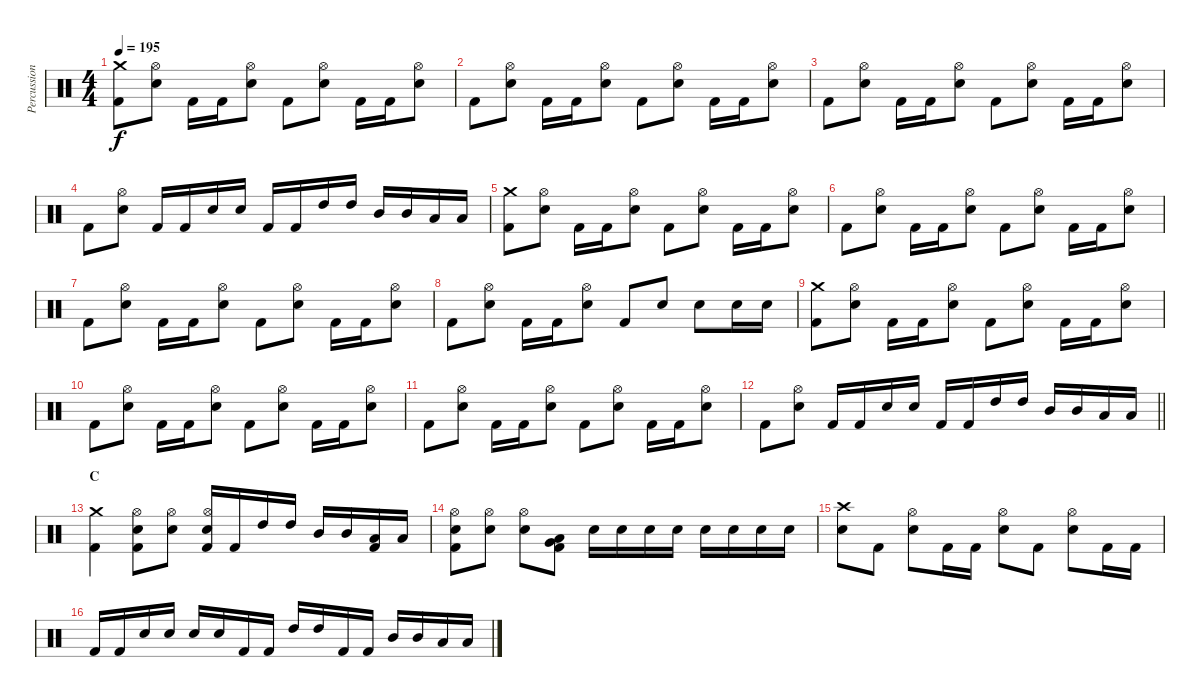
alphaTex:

\track ("Percussion" "Percussion") {instrument percussion}
\staff {score}
\articulation defaults
\ts (4 4)
\tempo 195
\clef neutral
\ks c
("Crash medium (hit)" "Kick (hit) 2").8{dy f} ("Hi-Hat (open)" "Electric Snare (hit)").8 "Kick (hit) 2".16 "Kick (hit) 2".16 ("Hi-Hat (open)" "Electric Snare (hit)").8 "Kick (hit) 2".8 ("Hi-Hat (open)" "Electric Snare (hit)").8 "Kick (hit) 2".16 "Kick (hit) 2".16 ("Hi-Hat (open)" "Electric Snare (hit)").8 |
"Kick (hit) 2".8 ("Hi-Hat (open)" "Electric Snare (hit)").8 "Kick (hit) 2".16 "Kick (hit) 2".16 ("Hi-Hat (open)" "Electric Snare (hit)").8 "Kick (hit) 2".8 ("Hi-Hat (open)" "Electric Snare (hit)").8 "Kick (hit) 2".16 "Kick (hit) 2".16 ("Hi-Hat (open)" "Electric Snare (hit)").8 |
"Kick (hit) 2".8 ("Hi-Hat (open)" "Electric Snare (hit)").8 "Kick (hit) 2".16 "Kick (hit) 2".16 ("Hi-Hat (open)" "Electric Snare (hit)").8 "Kick (hit) 2".8 ("Hi-Hat (open)" "Electric Snare (hit)").8 "Kick (hit) 2".16 "Kick (hit) 2".16 ("Hi-Hat (open)" "Electric Snare (hit)").8 |
"Kick (hit) 2".8 ("Hi-Hat (open)" "Electric Snare (hit)").8 "Kick (hit) 2".16 "Kick (hit) 2".16 "Electric Snare (hit)".16 "Electric Snare (hit)".16 "Kick (hit) 2".16 "Kick (hit) 2".16 "High Tom (hit)".16 "High Tom (hit)".16 "Mid Tom (hit)".16 "Mid Tom (hit)".16 "Low Tom (hit)".16 "Low Tom (hit)".16 |
("Crash medium (hit)" "Kick (hit) 2").8 ("Hi-Hat (open)" "Electric Snare (hit)").8 "Kick (hit) 2".16 "Kick (hit) 2".16 ("Hi-Hat (open)" "Electric Snare (hit)").8 "Kick (hit) 2".8 ("Hi-Hat (open)" "Electric Snare (hit)").8 "Kick (hit) 2".16 "Kick (hit) 2".16 ("Hi-Hat (open)" "Electric Snare (hit)").8 |
"Kick (hit) 2".8 ("Hi-Hat (open)" "Electric Snare (hit)").8 "Kick (hit) 2".16 "Kick (hit) 2".16 ("Hi-Hat (open)" "Electric Snare (hit)").8 "Kick (hit) 2".8 ("Hi-Hat (open)" "Electric Snare (hit)").8 "Kick (hit) 2".16 "Kick (hit) 2".16 ("Hi-Hat (open)" "Electric Snare (hit)").8 |
"Kick (hit) 2".8 ("Hi-Hat (open)" "Electric Snare (hit)").8 "Kick (hit) 2".16 "Kick (hit) 2".16 ("Hi-Hat (open)" "Electric Snare (hit)").8 "Kick (hit) 2".8 ("Hi-Hat (open)" "Electric Snare (hit)").8 "Kick (hit) 2".16 "Kick (hit) 2".16 ("Hi-Hat (open)" "Electric Snare (hit)").8 |
"Kick (hit) 2".8 ("Hi-Hat (open)" "Electric Snare (hit)").8 "Kick (hit) 2".16 "Kick (hit) 2".16 ("Hi-Hat (open)" "Electric Snare (hit)").8 "Kick (hit) 2".8 "Electric Snare (hit)".8 "Electric Snare (hit)".8 "Electric Snare (hit)".16 "Electric Snare (hit)".16 |
("Crash medium (hit)" "Kick (hit) 2").8 ("Hi-Hat (open)" "Electric Snare (hit)").8 "Kick (hit) 2".16 "Kick (hit) 2".16 ("Hi-Hat (open)" "Electric Snare (hit)").8 "Kick (hit) 2".8 ("Hi-Hat (open)" "Electric Snare (hit)").8 "Kick (hit) 2".16 "Kick (hit) 2".16 ("Hi-Hat (open)" "Electric Snare (hit)").8 |
"Kick (hit) 2".8 ("Hi-Hat (open)" "Electric Snare (hit)").8 "Kick (hit) 2".16 "Kick (hit) 2".16 ("Hi-Hat (open)" "Electric Snare (hit)").8 "Kick (hit) 2".8 ("Hi-Hat (open)" "Electric Snare (hit)").8 "Kick (hit) 2".16 "Kick (hit) 2".16 ("Hi-Hat (open)" "Electric Snare (hit)").8 |
"Kick (hit) 2".8 ("Hi-Hat (open)" "Electric Snare (hit)").8 "Kick (hit) 2".16 "Kick (hit) 2".16 ("Hi-Hat (open)" "Electric Snare (hit)").8 "Kick (hit) 2".8 ("Hi-Hat (open)" "Electric Snare (hit)").8 "Kick (hit) 2".16 "Kick (hit) 2".16 ("Hi-Hat (open)" "Electric Snare (hit)").8 |
\barLineRight lightlight "Kick (hit) 2".8
("Hi-Hat (open)" "Electric Snare (hit)").8 "Kick (hit) 2".16 "Kick (hit) 2".16 "Electric Snare (hit)".16 "Electric Snare (hit)".16 "Kick (hit) 2".16 "Kick (hit) 2".16 "High Tom (hit)".16 "High Tom (hit)".16 "Mid Tom (hit)".16 "Mid Tom (hit)".16 "Low Tom (hit)".16 "Low Tom (hit)".16 |
\section ("" "C")
("Crash medium (hit)" "Kick (hit) 2").4 ("Hi-Hat (open)" "Electric Snare (hit)" "Kick (hit) 2").8 ("Hi-Hat (open)" "Electric Snare (hit)").8 ("Hi-Hat (open)" "Electric Snare (hit)" "Kick (hit) 2").16 "Kick (hit) 2".16 "High Tom (hit)".16 "High Tom (hit)".16 "Mid Tom (hit)".16 "Mid Tom (hit)".16 ("Low Tom (hit)" "Kick (hit) 2").16 "Low Tom (hit)".16 |
("Hi-Hat (open)" "Electric Snare (hit)" "Kick (hit) 2").8 ("Hi-Hat (open)" "Electric Snare (hit)").8 ("Hi-Hat (open)" "Electric Snare (hit)").8 ("Very Low Tom (hit)" "Low Floor Tom (hit)" "Kick (hit) 2").8 "Electric Snare (hit)".16 "Electric Snare (hit)".16 "Electric Snare (hit)".16 "Electric Snare (hit)".16 "Electric Snare (hit)".16 "Electric Snare (hit)".16 "Electric Snare (hit)".16 "Electric Snare (hit)".16 |
("Crash high (hit)" "Electric Snare (hit)").8 "Kick (hit) 2".8 ("Hi-Hat (open)" "Electric Snare (hit)").8 "Kick (hit) 2".16 "Kick (hit) 2".16 ("Hi-Hat (open)" "Electric Snare (hit)").8 "Kick (hit) 2".8 ("Hi-Hat (open)" "Electric Snare (hit)").8 "Kick (hit) 2".16 "Kick (hit) 2".16 |
"Kick (hit) 2".16 "Kick (hit) 2".16 "Electric Snare (hit)".16 "Electric Snare (hit)".16 "Electric Snare (hit)".16 "Electric Snare (hit)".16 "Kick (hit) 2".16 "Kick (hit) 2".16 "High Tom (hit)".16 "High Tom (hit)".16 "Kick (hit) 2".16 "Kick (hit) 2".16 "Mid Tom (hit)".16 "Mid Tom (hit)".16 "Low Tom (hit)".16 "Low Tom (hit)".16
